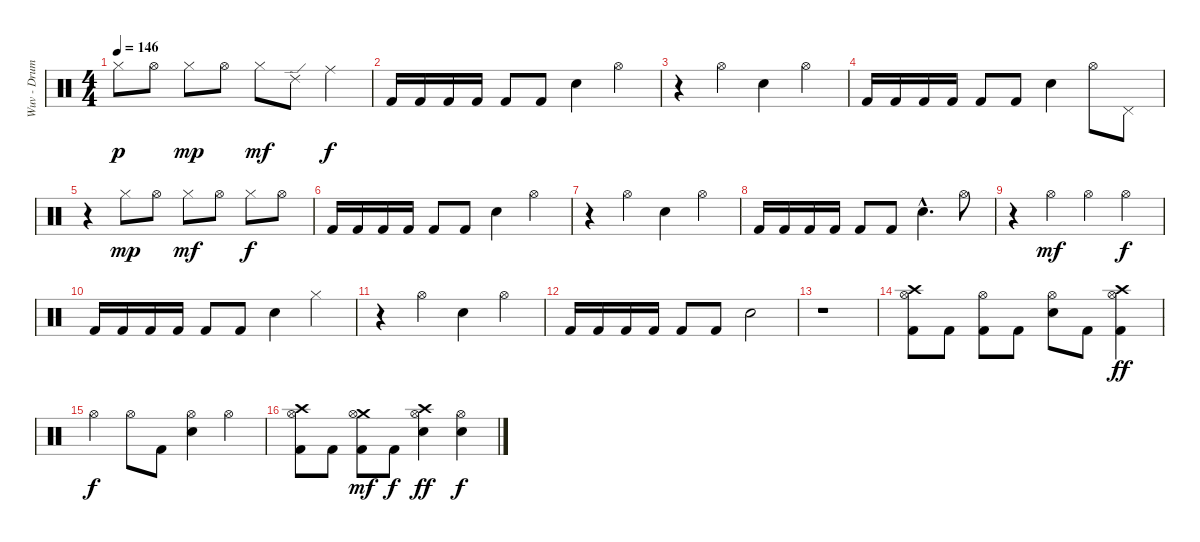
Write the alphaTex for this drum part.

\track ("Wuv - Drums" "Wuv - Drum") {instrument percussion}
\staff {score}
\articulation defaults
\ts (4 4)
\tempo 146
\clef neutral
\ks c "Hi-Hat (closed)".8{dy p} "Hi-Hat (open)".8 "Hi-Hat (closed)".8{dy mp} "Hi-Hat (open)".8 "Hi-Hat (closed)".8{dy mf} "Ride (edge) 2".8 "Ride (middle)".4{dy f}
|
"Kick (hit) 2".16 "Kick (hit) 2".16 "Kick (hit) 2".16 "Kick (hit) 2".16 "Kick (hit) 2".8 "Kick (hit) 2".8 "Electric Snare (hit)".4 "Hi-Hat (open)".4 |
r.4 "Hi-Hat (open)".4 "Electric Snare (hit)".4 "Hi-Hat (open)".4 |
"Kick (hit) 2".16 "Kick (hit) 2".16 "Kick (hit) 2".16 "Kick (hit) 2".16 "Kick (hit) 2".8 "Kick (hit) 2".8 "Electric Snare (hit)".4 "Hi-Hat (open)".8 "Pedal Hi-Hat (hit)".8 |
r.4 "Hi-Hat (closed)".8{dy mp} "Hi-Hat (open)".8 "Hi-Hat (closed)".8{dy mf} "Hi-Hat (open)".8 "Hi-Hat (closed)".8{dy f} "Hi-Hat (open)".8 |
"Kick (hit) 2".16 "Kick (hit) 2".16 "Kick (hit) 2".16 "Kick (hit) 2".16 "Kick (hit) 2".8 "Kick (hit) 2".8 "Electric Snare (hit)".4 "Hi-Hat (open)".4 |
r.4 "Hi-Hat (open)".4 "Electric Snare (hit)".4 "Hi-Hat (open)".4 |
"Kick (hit) 2".16 "Kick (hit) 2".16 "Kick (hit) 2".16 "Kick (hit) 2".16 "Kick (hit) 2".8 "Kick (hit) 2".8 "Electric Snare (hit)"{hac}.4{d} "Hi-Hat (open)".8 |
r.4 "Hi-Hat (open)".4{dy mf} "Hi-Hat (open)".4 "Hi-Hat (open)".4{dy f} |
"Kick (hit) 2".16 "Kick (hit) 2".16 "Kick (hit) 2".16 "Kick (hit) 2".16 "Kick (hit) 2".8 "Kick (hit) 2".8 "Electric Snare (hit)".4 "Hi-Hat (closed)".4 |
r.4 "Hi-Hat (open)".4 "Electric Snare (hit)".4 "Hi-Hat (open)".4 |
"Kick (hit) 2".16 "Kick (hit) 2".16 "Kick (hit) 2".16 "Kick (hit) 2".16 "Kick (hit) 2".8 "Kick (hit) 2".8 "Electric Snare (hit)".2 |
r.1 |
("Crash high (hit)" "Hi-Hat (open)" "Kick (hit) 2").8 "Kick (hit) 2".8 ("Hi-Hat (open)" "Kick (hit) 2").8 "Kick (hit) 2".8 ("Hi-Hat (open)" "Electric Snare (hit)").8 "Kick (hit) 2".8 ("Crash high (hit)" "Hi-Hat (open)" "Kick (hit) 2").4{dy ff} |
"Hi-Hat (open)".4{dy f} "Hi-Hat (open)".8 "Kick (hit) 2".8 ("Hi-Hat (open)" "Electric Snare (hit)").4 "Hi-Hat (open)".4 |
("Crash high (hit)" "Hi-Hat (open)" "Kick (hit) 2").8 "Kick (hit) 2".8 ("Crash medium (hit)" "Hi-Hat (open)" "Kick (hit) 2").8{dy mf} "Kick (hit) 2".8{dy f} ("Crash high (hit)" "Hi-Hat (open)" "Electric Snare (hit)").4{dy ff} ("Hi-Hat (open)" "Electric Snare (hit)").4{dy f}
